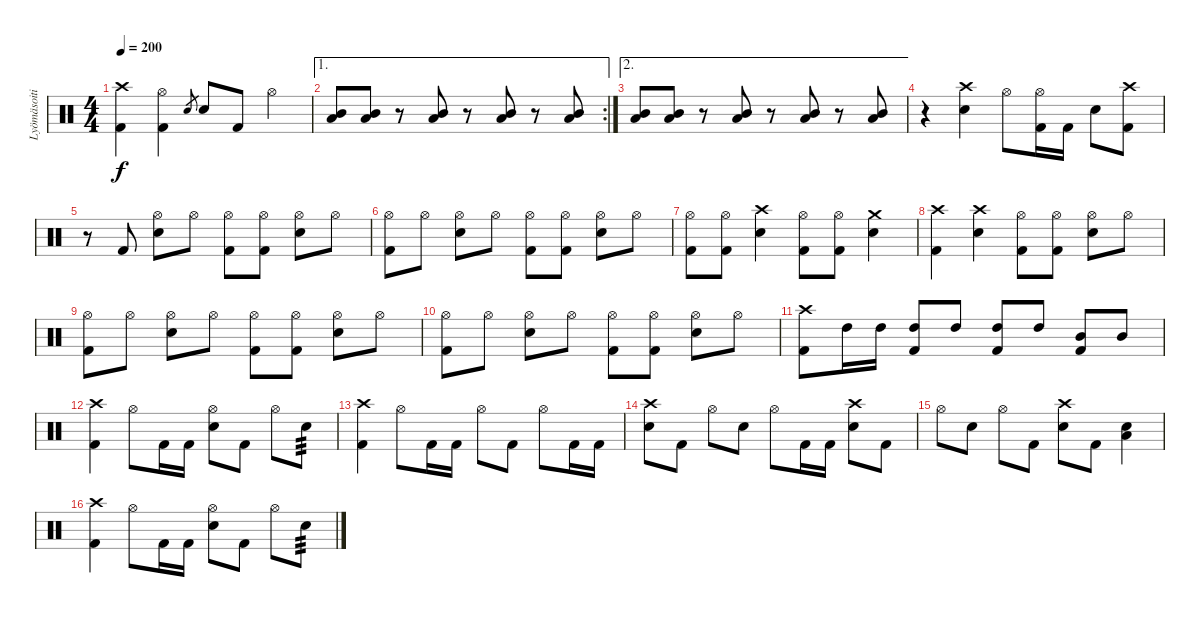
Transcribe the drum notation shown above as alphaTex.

\track ("Lyömäsoitin" "Lyömäsoiti") {instrument percussion}
\staff {score}
\articulation defaults
\ts (4 4)
\tempo 200
\clef neutral
\ks c
("Crash high (hit)" "Kick (hit) 2").4{dy f} ("Hi-Hat (open)" "Kick (hit) 2").4 "Snare (hit) 2".8{gr} "Snare (hit) 2".8 "Kick (hit) 2".8 "Hi-Hat (open)".4 |
\ae 1
\rc 2
("Low Tom (hit)" "Mid Tom (hit)").8 ("Low Tom (hit)" "Mid Tom (hit)").8 r.8 ("Low Tom (hit)" "Mid Tom (hit)").8 r.8 ("Low Tom (hit)" "Mid Tom (hit)").8 r.8 ("Low Tom (hit)" "Mid Tom (hit)").8 |
\ae 2
("Low Tom (hit)" "Mid Tom (hit)").8 ("Low Tom (hit)" "Mid Tom (hit)").8 r.8 ("Low Tom (hit)" "Mid Tom (hit)").8 r.8 ("Low Tom (hit)" "Mid Tom (hit)").8 r.8 ("Low Tom (hit)" "Mid Tom (hit)").8 |
r.4 ("Crash high (hit)" "Snare (hit) 2").4 "Hi-Hat (open)".8 ("Hi-Hat (open)" "Kick (hit) 2").16 "Kick (hit) 2".16 "Snare (hit) 2".8 ("Crash high (hit)" "Kick (hit) 2").8 |
r.8 "Kick (hit) 2".8 ("Hi-Hat (open)" "Snare (hit) 2").8 "Hi-Hat (open)".8 ("Hi-Hat (open)" "Kick (hit) 2").8 ("Hi-Hat (open)" "Kick (hit) 2").8 ("Hi-Hat (open)" "Snare (hit) 2").8 "Hi-Hat (open)".8 |
("Hi-Hat (open)" "Kick (hit) 2").8 "Hi-Hat (open)".8 ("Hi-Hat (open)" "Snare (hit) 2").8 "Hi-Hat (open)".8 ("Hi-Hat (open)" "Kick (hit) 2").8 ("Hi-Hat (open)" "Kick (hit) 2").8 ("Hi-Hat (open)" "Snare (hit) 2").8 "Hi-Hat (open)".8 |
("Hi-Hat (open)" "Kick (hit) 2").8 ("Hi-Hat (open)" "Kick (hit) 2").8 ("Crash high (hit)" "Snare (hit) 2").4 ("Hi-Hat (open)" "Kick (hit) 2").8 ("Hi-Hat (open)" "Kick (hit) 2").8 ("Crash medium (hit)" "Snare (hit) 2").4 |
("Crash high (hit)" "Kick (hit) 2").4 ("Crash high (hit)" "Snare (hit) 2").4 ("Hi-Hat (open)" "Kick (hit) 2").8 ("Hi-Hat (open)" "Kick (hit) 2").8 ("Hi-Hat (open)" "Snare (hit) 2").8 "Hi-Hat (open)".8 |
("Hi-Hat (open)" "Kick (hit) 2").8 "Hi-Hat (open)".8 ("Hi-Hat (open)" "Snare (hit) 2").8 "Hi-Hat (open)".8 ("Hi-Hat (open)" "Kick (hit) 2").8 ("Hi-Hat (open)" "Kick (hit) 2").8 ("Hi-Hat (open)" "Snare (hit) 2").8 "Hi-Hat (open)".8 |
("Hi-Hat (open)" "Kick (hit) 2").8 "Hi-Hat (open)".8 ("Hi-Hat (open)" "Snare (hit) 2").8 "Hi-Hat (open)".8 ("Hi-Hat (open)" "Kick (hit) 2").8 ("Hi-Hat (open)" "Kick (hit) 2").8 ("Hi-Hat (open)" "Snare (hit) 2").8 "Hi-Hat (open)".8 |
("Crash high (hit)" "Kick (hit) 2").8 "High Tom (hit)".16 "High Tom (hit)".16 ("High Tom (hit)" "Kick (hit) 2").8 "High Tom (hit)".8 ("High Tom (hit)" "Kick (hit) 2").8 "High Tom (hit)".8 ("Mid Tom (hit)" "Kick (hit) 2").8 "Mid Tom (hit)".8 |
("Crash high (hit)" "Kick (hit) 2").4 "Hi-Hat (open)".8 "Kick (hit) 2".16 "Kick (hit) 2".16 ("Hi-Hat (open)" "Snare (hit) 2").8 "Kick (hit) 2".8 "Hi-Hat (open)".8 "Snare (hit) 2".8{tp 3} |
("Crash high (hit)" "Kick (hit) 2").4 "Hi-Hat (open)".8 "Kick (hit) 2".16 "Kick (hit) 2".16 "Hi-Hat (open)".8 "Kick (hit) 2".8 "Hi-Hat (open)".8 "Kick (hit) 2".16 "Kick (hit) 2".16 |
("Crash high (hit)" "Snare (hit) 2").8 "Kick (hit) 2".8 "Hi-Hat (open)".8 "Snare (hit) 2".8 "Hi-Hat (open)".8 "Kick (hit) 2".16 "Kick (hit) 2".16 ("Crash high (hit)" "Snare (hit) 2").8 "Kick (hit) 2".8 |
"Hi-Hat (open)".8 "Snare (hit) 2".8 "Hi-Hat (open)".8 "Kick (hit) 2".8 ("Crash high (hit)" "Snare (hit) 2").8 "Kick (hit) 2".8 ("Low Tom (hit)" "Snare (hit) 2").4 |
("Crash high (hit)" "Kick (hit) 2").4 "Hi-Hat (open)".8 "Kick (hit) 2".16 "Kick (hit) 2".16 ("Hi-Hat (open)" "Snare (hit) 2").8 "Kick (hit) 2".8 "Hi-Hat (open)".8 "Snare (hit) 2".8{tp 3}
